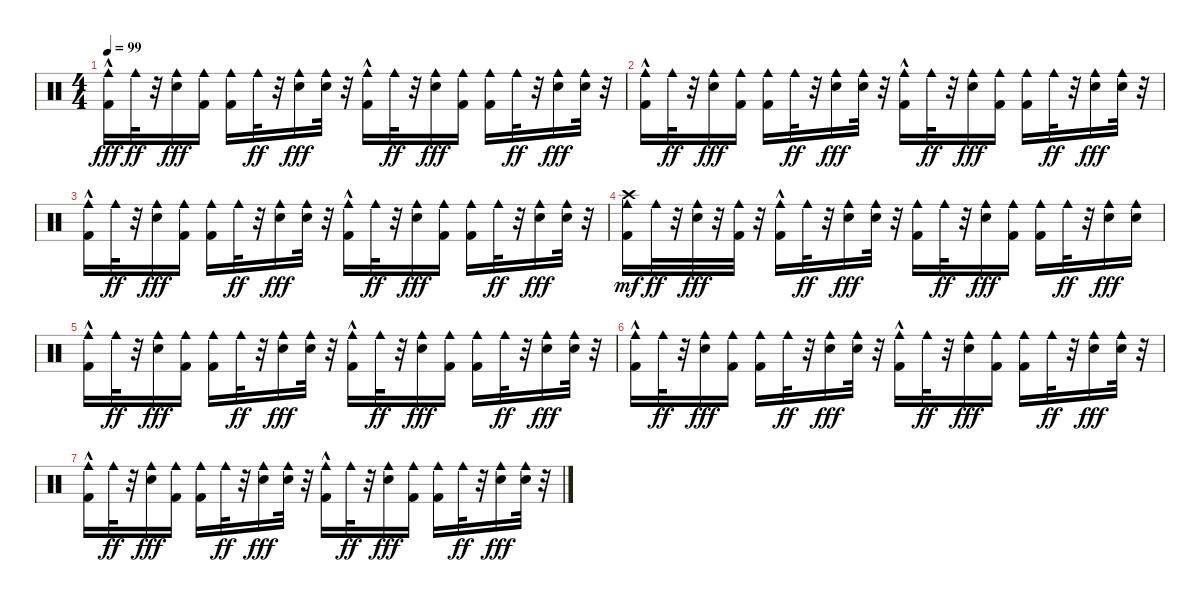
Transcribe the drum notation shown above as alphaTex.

\track "" {instrument percussion}
\staff {score}
\articulation defaults
\ts (4 4)
\tempo 99
\clef neutral
\ks c
("Cowbell medium (hit)" "Kick (hit) 2"{hac}).16{dy fff} "Cowbell medium (hit)".32{dy ff} r.32 ("Cowbell medium (hit)" "Electric Snare (hit)").16{dy fff} ("Cowbell medium (hit)" "Kick (hit) 2").16 ("Cowbell medium (hit)" "Kick (hit) 2").16 "Cowbell medium (hit)".32{dy ff} r.32 ("Cowbell medium (hit)" "Electric Snare (hit)").16{dy fff} ("Cowbell medium (hit)" "Electric Snare (hit)").32 r.32 ("Cowbell medium (hit)" "Kick (hit) 2"{hac}).16 "Cowbell medium (hit)".32{dy ff} r.32 ("Cowbell medium (hit)" "Electric Snare (hit)").16{dy fff} ("Cowbell medium (hit)" "Kick (hit) 2").16 ("Cowbell medium (hit)" "Kick (hit) 2").16 "Cowbell medium (hit)".32{dy ff} r.32 ("Cowbell medium (hit)" "Electric Snare (hit)").16{dy fff} ("Cowbell medium (hit)" "Electric Snare (hit)").32 r.32 |
("Cowbell medium (hit)" "Kick (hit) 2"{hac}).16 "Cowbell medium (hit)".32{dy ff} r.32 ("Cowbell medium (hit)" "Electric Snare (hit)").16{dy fff} ("Cowbell medium (hit)" "Kick (hit) 2").16 ("Cowbell medium (hit)" "Kick (hit) 2").16 "Cowbell medium (hit)".32{dy ff} r.32 ("Cowbell medium (hit)" "Electric Snare (hit)").16{dy fff} ("Cowbell medium (hit)" "Electric Snare (hit)").32 r.32 ("Cowbell medium (hit)" "Kick (hit) 2"{hac}).16 "Cowbell medium (hit)".32{dy ff} r.32 ("Cowbell medium (hit)" "Electric Snare (hit)").16{dy fff} ("Cowbell medium (hit)" "Kick (hit) 2").16 ("Cowbell medium (hit)" "Kick (hit) 2").16 "Cowbell medium (hit)".32{dy ff} r.32 ("Cowbell medium (hit)" "Electric Snare (hit)").16{dy fff} ("Cowbell medium (hit)" "Electric Snare (hit)").32 r.32 |
("Cowbell medium (hit)" "Kick (hit) 2"{hac}).16 "Cowbell medium (hit)".32{dy ff} r.32 ("Cowbell medium (hit)" "Electric Snare (hit)").16{dy fff} ("Cowbell medium (hit)" "Kick (hit) 2").16 ("Cowbell medium (hit)" "Kick (hit) 2").16 "Cowbell medium (hit)".32{dy ff} r.32 ("Cowbell medium (hit)" "Electric Snare (hit)").16{dy fff} ("Cowbell medium (hit)" "Electric Snare (hit)").32 r.32 ("Cowbell medium (hit)" "Kick (hit) 2"{hac}).16 "Cowbell medium (hit)".32{dy ff} r.32 ("Cowbell medium (hit)" "Electric Snare (hit)").16{dy fff} ("Cowbell medium (hit)" "Kick (hit) 2").16 ("Cowbell medium (hit)" "Kick (hit) 2").16 "Cowbell medium (hit)".32{dy ff} r.32 ("Cowbell medium (hit)" "Electric Snare (hit)").16{dy fff} ("Cowbell medium (hit)" "Electric Snare (hit)").32 r.32 |
("Cowbell medium (hit)" "Kick (hit) 2" "Crash high (hit)").16{dy mf} "Cowbell medium (hit)".32{dy ff} r.32 ("Cowbell medium (hit)" "Electric Snare (hit)").32{dy fff} r.32 ("Cowbell medium (hit)" "Kick (hit) 2").32 r.32 ("Cowbell medium (hit)" "Kick (hit) 2"{hac}).16 "Cowbell medium (hit)".32{dy ff} r.32 ("Cowbell medium (hit)" "Electric Snare (hit)").16{dy fff} ("Cowbell medium (hit)" "Electric Snare (hit)").32 r.32 ("Cowbell medium (hit)" "Kick (hit) 2").16 "Cowbell medium (hit)".32{dy ff} r.32 ("Cowbell medium (hit)" "Electric Snare (hit)").16{dy fff} ("Cowbell medium (hit)" "Kick (hit) 2").16 ("Cowbell medium (hit)" "Kick (hit) 2").16 "Cowbell medium (hit)".32{dy ff} r.32 ("Cowbell medium (hit)" "Electric Snare (hit)").16{dy fff} ("Cowbell medium (hit)" "Electric Snare (hit)").16 |
("Cowbell medium (hit)" "Kick (hit) 2"{hac}).16 "Cowbell medium (hit)".32{dy ff} r.32 ("Cowbell medium (hit)" "Electric Snare (hit)").16{dy fff} ("Cowbell medium (hit)" "Kick (hit) 2").16 ("Cowbell medium (hit)" "Kick (hit) 2").16 "Cowbell medium (hit)".32{dy ff} r.32 ("Cowbell medium (hit)" "Electric Snare (hit)").16{dy fff} ("Cowbell medium (hit)" "Electric Snare (hit)").32 r.32 ("Cowbell medium (hit)" "Kick (hit) 2"{hac}).16 "Cowbell medium (hit)".32{dy ff} r.32 ("Cowbell medium (hit)" "Electric Snare (hit)").16{dy fff} ("Cowbell medium (hit)" "Kick (hit) 2").16 ("Cowbell medium (hit)" "Kick (hit) 2").16 "Cowbell medium (hit)".32{dy ff} r.32 ("Cowbell medium (hit)" "Electric Snare (hit)").16{dy fff} ("Cowbell medium (hit)" "Electric Snare (hit)").32 r.32 |
("Cowbell medium (hit)" "Kick (hit) 2"{hac}).16 "Cowbell medium (hit)".32{dy ff} r.32 ("Cowbell medium (hit)" "Electric Snare (hit)").16{dy fff} ("Cowbell medium (hit)" "Kick (hit) 2").16 ("Cowbell medium (hit)" "Kick (hit) 2").16 "Cowbell medium (hit)".32{dy ff} r.32 ("Cowbell medium (hit)" "Electric Snare (hit)").16{dy fff} ("Cowbell medium (hit)" "Electric Snare (hit)").32 r.32 ("Cowbell medium (hit)" "Kick (hit) 2"{hac}).16 "Cowbell medium (hit)".32{dy ff} r.32 ("Cowbell medium (hit)" "Electric Snare (hit)").16{dy fff} ("Cowbell medium (hit)" "Kick (hit) 2").16 ("Cowbell medium (hit)" "Kick (hit) 2").16 "Cowbell medium (hit)".32{dy ff} r.32 ("Cowbell medium (hit)" "Electric Snare (hit)").16{dy fff} ("Cowbell medium (hit)" "Electric Snare (hit)").32 r.32 |
("Cowbell medium (hit)" "Kick (hit) 2"{hac}).16 "Cowbell medium (hit)".32{dy ff} r.32 ("Cowbell medium (hit)" "Electric Snare (hit)").16{dy fff} ("Cowbell medium (hit)" "Kick (hit) 2").16 ("Cowbell medium (hit)" "Kick (hit) 2").16 "Cowbell medium (hit)".32{dy ff} r.32 ("Cowbell medium (hit)" "Electric Snare (hit)").16{dy fff} ("Cowbell medium (hit)" "Electric Snare (hit)").32 r.32 ("Cowbell medium (hit)" "Kick (hit) 2"{hac}).16 "Cowbell medium (hit)".32{dy ff} r.32 ("Cowbell medium (hit)" "Electric Snare (hit)").16{dy fff} ("Cowbell medium (hit)" "Kick (hit) 2").16 ("Cowbell medium (hit)" "Kick (hit) 2").16 "Cowbell medium (hit)".32{dy ff} r.32 ("Cowbell medium (hit)" "Electric Snare (hit)").16{dy fff} ("Cowbell medium (hit)" "Electric Snare (hit)").32 r.32
